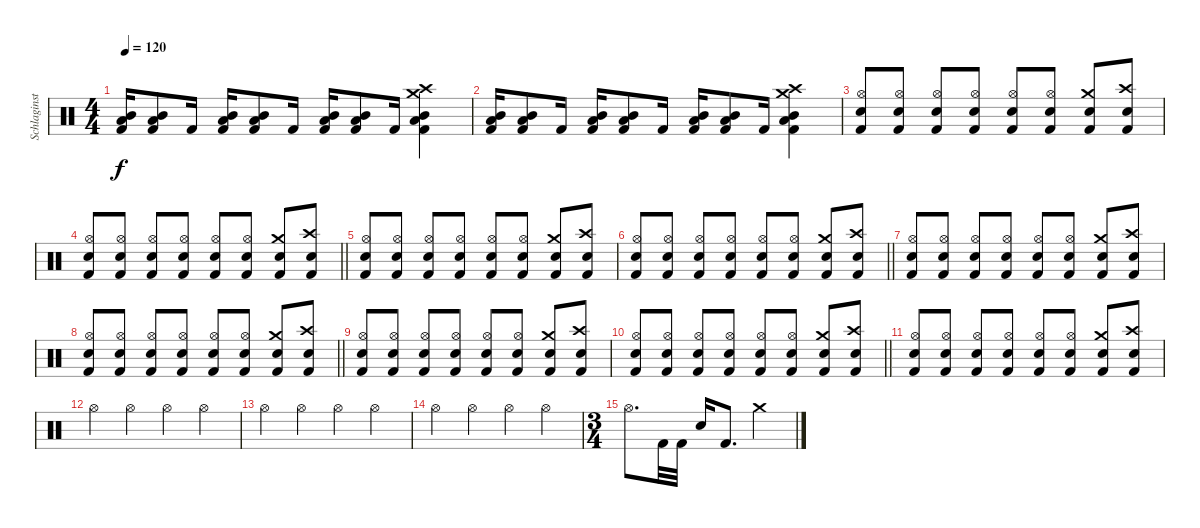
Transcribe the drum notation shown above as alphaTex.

\track ("Schlaginstrumente - Auswahl" "Schlaginst") {instrument percussion}
\staff {score}
\articulation defaults
\ts (4 4)
\tempo 120
\clef neutral
\ks c
("Low Tom (hit)" "Mid Tom (hit)" "Kick (hit) 2").16{dy f} ("Low Tom (hit)" "Mid Tom (hit)" "Kick (hit) 2").8 "Kick (hit) 2".16 ("Low Tom (hit)" "Mid Tom (hit)" "Kick (hit) 2").16 ("Low Tom (hit)" "Mid Tom (hit)" "Kick (hit) 2").8 "Kick (hit) 2".16 ("Low Tom (hit)" "Mid Tom (hit)" "Kick (hit) 2").16 ("Low Tom (hit)" "Mid Tom (hit)" "Kick (hit) 2").8 "Kick (hit) 2".16 ("Crash medium (hit)" "Crash high (hit)" "Low Tom (hit)" "Mid Tom (hit)" "Kick (hit) 2").4 |
("Low Tom (hit)" "Mid Tom (hit)" "Kick (hit) 2").16 ("Low Tom (hit)" "Mid Tom (hit)" "Kick (hit) 2").8 "Kick (hit) 2".16 ("Low Tom (hit)" "Mid Tom (hit)" "Kick (hit) 2").16 ("Low Tom (hit)" "Mid Tom (hit)" "Kick (hit) 2").8 "Kick (hit) 2".16 ("Low Tom (hit)" "Mid Tom (hit)" "Kick (hit) 2").16 ("Low Tom (hit)" "Mid Tom (hit)" "Kick (hit) 2").8 "Kick (hit) 2".16 ("Crash medium (hit)" "Crash high (hit)" "Low Tom (hit)" "Mid Tom (hit)" "Kick (hit) 2").4 |
("Hi-Hat (open)" "Snare (hit) 2" "Kick (hit) 2").8 ("Hi-Hat (open)" "Snare (hit) 2" "Kick (hit) 2").8 ("Hi-Hat (open)" "Snare (hit) 2" "Kick (hit) 2").8 ("Hi-Hat (open)" "Snare (hit) 2" "Kick (hit) 2").8 ("Hi-Hat (open)" "Snare (hit) 2" "Kick (hit) 2").8 ("Hi-Hat (open)" "Snare (hit) 2" "Kick (hit) 2").8 ("Crash medium (hit)" "Snare (hit) 2" "Kick (hit) 2").8 ("Crash high (hit)" "Snare (hit) 2" "Kick (hit) 2").8 |
\barLineRight lightlight
("Hi-Hat (open)" "Snare (hit) 2" "Kick (hit) 2").8 ("Hi-Hat (open)" "Snare (hit) 2" "Kick (hit) 2").8 ("Hi-Hat (open)" "Snare (hit) 2" "Kick (hit) 2").8 ("Hi-Hat (open)" "Snare (hit) 2" "Kick (hit) 2").8 ("Hi-Hat (open)" "Snare (hit) 2" "Kick (hit) 2").8 ("Hi-Hat (open)" "Snare (hit) 2" "Kick (hit) 2").8 ("Crash medium (hit)" "Snare (hit) 2" "Kick (hit) 2").8 ("Crash high (hit)" "Snare (hit) 2" "Kick (hit) 2").8 |
("Hi-Hat (open)" "Snare (hit) 2" "Kick (hit) 2").8 ("Hi-Hat (open)" "Snare (hit) 2" "Kick (hit) 2").8 ("Hi-Hat (open)" "Snare (hit) 2" "Kick (hit) 2").8 ("Hi-Hat (open)" "Snare (hit) 2" "Kick (hit) 2").8 ("Hi-Hat (open)" "Snare (hit) 2" "Kick (hit) 2").8 ("Hi-Hat (open)" "Snare (hit) 2" "Kick (hit) 2").8 ("Crash medium (hit)" "Snare (hit) 2" "Kick (hit) 2").8 ("Crash high (hit)" "Snare (hit) 2" "Kick (hit) 2").8 |
\barLineRight lightlight
("Hi-Hat (open)" "Snare (hit) 2" "Kick (hit) 2").8 ("Hi-Hat (open)" "Snare (hit) 2" "Kick (hit) 2").8 ("Hi-Hat (open)" "Snare (hit) 2" "Kick (hit) 2").8 ("Hi-Hat (open)" "Snare (hit) 2" "Kick (hit) 2").8 ("Hi-Hat (open)" "Snare (hit) 2" "Kick (hit) 2").8 ("Hi-Hat (open)" "Snare (hit) 2" "Kick (hit) 2").8 ("Crash medium (hit)" "Snare (hit) 2" "Kick (hit) 2").8 ("Crash high (hit)" "Snare (hit) 2" "Kick (hit) 2").8 |
("Hi-Hat (open)" "Snare (hit) 2" "Kick (hit) 2").8 ("Hi-Hat (open)" "Snare (hit) 2" "Kick (hit) 2").8 ("Hi-Hat (open)" "Snare (hit) 2" "Kick (hit) 2").8 ("Hi-Hat (open)" "Snare (hit) 2" "Kick (hit) 2").8 ("Hi-Hat (open)" "Snare (hit) 2" "Kick (hit) 2").8 ("Hi-Hat (open)" "Snare (hit) 2" "Kick (hit) 2").8 ("Crash medium (hit)" "Snare (hit) 2" "Kick (hit) 2").8 ("Crash high (hit)" "Snare (hit) 2" "Kick (hit) 2").8 |
\barLineRight lightlight
("Hi-Hat (open)" "Snare (hit) 2" "Kick (hit) 2").8 ("Hi-Hat (open)" "Snare (hit) 2" "Kick (hit) 2").8 ("Hi-Hat (open)" "Snare (hit) 2" "Kick (hit) 2").8 ("Hi-Hat (open)" "Snare (hit) 2" "Kick (hit) 2").8 ("Hi-Hat (open)" "Snare (hit) 2" "Kick (hit) 2").8 ("Hi-Hat (open)" "Snare (hit) 2" "Kick (hit) 2").8 ("Crash medium (hit)" "Snare (hit) 2" "Kick (hit) 2").8 ("Crash high (hit)" "Snare (hit) 2" "Kick (hit) 2").8 |
("Hi-Hat (open)" "Snare (hit) 2" "Kick (hit) 2").8 ("Hi-Hat (open)" "Snare (hit) 2" "Kick (hit) 2").8 ("Hi-Hat (open)" "Snare (hit) 2" "Kick (hit) 2").8 ("Hi-Hat (open)" "Snare (hit) 2" "Kick (hit) 2").8 ("Hi-Hat (open)" "Snare (hit) 2" "Kick (hit) 2").8 ("Hi-Hat (open)" "Snare (hit) 2" "Kick (hit) 2").8 ("Crash medium (hit)" "Snare (hit) 2" "Kick (hit) 2").8 ("Crash high (hit)" "Snare (hit) 2" "Kick (hit) 2").8 |
\barLineRight lightlight
("Hi-Hat (open)" "Snare (hit) 2" "Kick (hit) 2").8 ("Hi-Hat (open)" "Snare (hit) 2" "Kick (hit) 2").8 ("Hi-Hat (open)" "Snare (hit) 2" "Kick (hit) 2").8 ("Hi-Hat (open)" "Snare (hit) 2" "Kick (hit) 2").8 ("Hi-Hat (open)" "Snare (hit) 2" "Kick (hit) 2").8 ("Hi-Hat (open)" "Snare (hit) 2" "Kick (hit) 2").8 ("Crash medium (hit)" "Snare (hit) 2" "Kick (hit) 2").8 ("Crash high (hit)" "Snare (hit) 2" "Kick (hit) 2").8 |
("Hi-Hat (open)" "Snare (hit) 2" "Kick (hit) 2").8 ("Hi-Hat (open)" "Snare (hit) 2" "Kick (hit) 2").8 ("Hi-Hat (open)" "Snare (hit) 2" "Kick (hit) 2").8 ("Hi-Hat (open)" "Snare (hit) 2" "Kick (hit) 2").8 ("Hi-Hat (open)" "Snare (hit) 2" "Kick (hit) 2").8 ("Hi-Hat (open)" "Snare (hit) 2" "Kick (hit) 2").8 ("Crash medium (hit)" "Snare (hit) 2" "Kick (hit) 2").8 ("Crash high (hit)" "Snare (hit) 2" "Kick (hit) 2").8 |
"Hi-Hat (open)".4 "Hi-Hat (open)".4 "Hi-Hat (open)".4 "Hi-Hat (open)".4 |
"Hi-Hat (open)".4 "Hi-Hat (open)".4 "Hi-Hat (open)".4 "Hi-Hat (open)".4 |
"Hi-Hat (open)".4 "Hi-Hat (open)".4 "Hi-Hat (open)".4 "Hi-Hat (open)".4 |
\ts (3 4)
"Hi-Hat (open)".8{d} "Kick (hit) 2".32 "Kick (hit) 2".32 "Electric Snare (hit)".16 "Kick (hit) 2".8{d} "Crash medium (hit)".4
